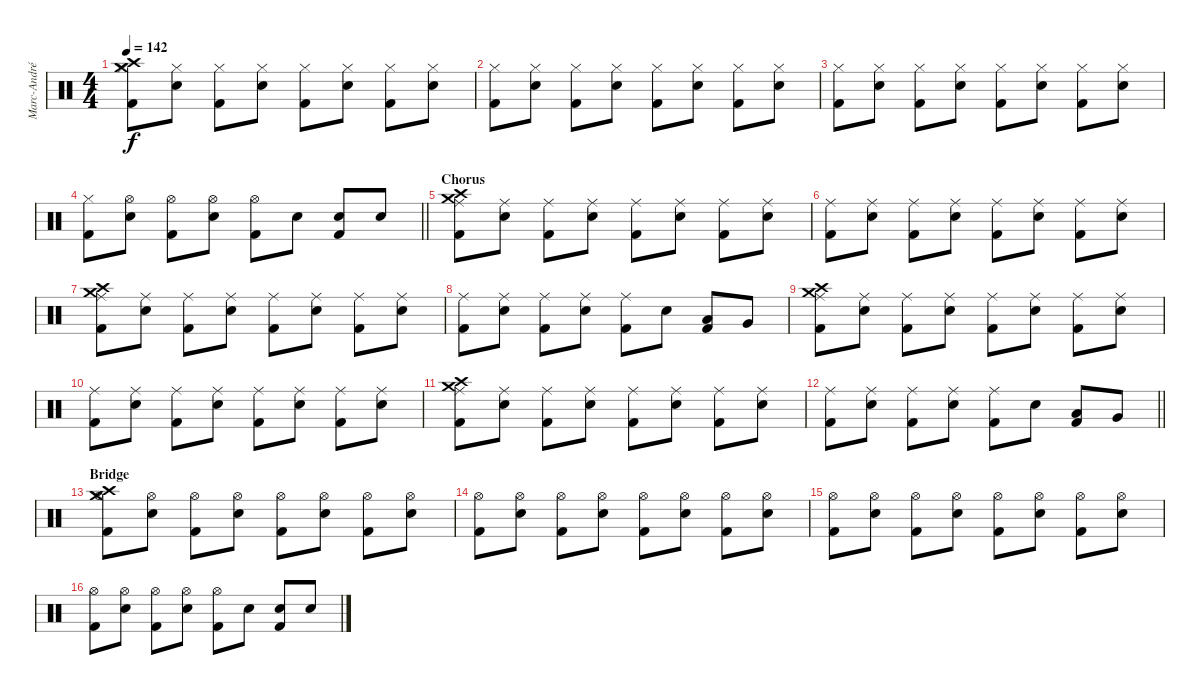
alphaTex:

\track ("Marc-André Barabé" "Marc-André") {instrument percussion}
\staff {score}
\articulation defaults
\ts (4 4)
\tempo 142
\clef neutral
\ks c
("Crash high (hit)" "Crash medium (hit)" "Hi-Hat (closed)" "Kick (hit) 2").8{dy f} ("Hi-Hat (closed)" "Electric Snare (hit)").8 ("Hi-Hat (closed)" "Kick (hit) 2"{tr (2 32)}).8 ("Hi-Hat (closed)" "Electric Snare (hit)").8 ("Hi-Hat (closed)" "Kick (hit) 2").8 ("Hi-Hat (closed)" "Electric Snare (hit)").8 ("Hi-Hat (closed)" "Kick (hit) 2"{tr (2 32)}).8 ("Hi-Hat (closed)" "Electric Snare (hit)").8 |
("Hi-Hat (closed)" "Kick (hit) 2").8 ("Hi-Hat (closed)" "Electric Snare (hit)").8 ("Hi-Hat (closed)" "Kick (hit) 2"{tr (2 32)}).8 ("Hi-Hat (closed)" "Electric Snare (hit)").8 ("Hi-Hat (closed)" "Kick (hit) 2").8 ("Hi-Hat (closed)" "Electric Snare (hit)").8 ("Hi-Hat (closed)" "Kick (hit) 2"{tr (2 32)}).8 ("Hi-Hat (closed)" "Electric Snare (hit)").8 |
("Hi-Hat (closed)" "Kick (hit) 2").8 ("Hi-Hat (closed)" "Electric Snare (hit)").8 ("Hi-Hat (closed)" "Kick (hit) 2"{tr (2 32)}).8 ("Hi-Hat (closed)" "Electric Snare (hit)").8 ("Hi-Hat (closed)" "Kick (hit) 2").8 ("Hi-Hat (closed)" "Electric Snare (hit)").8 ("Hi-Hat (closed)" "Kick (hit) 2"{tr (2 32)}).8 ("Hi-Hat (closed)" "Electric Snare (hit)").8 |
\barLineRight lightlight
("Hi-Hat (closed)" "Kick (hit) 2").8 ("Hi-Hat (open)" "Electric Snare (hit)").8 ("Hi-Hat (open)" "Kick (hit) 2"{tr (2 32)}).8 ("Hi-Hat (open)" "Electric Snare (hit)").8 ("Hi-Hat (open)" "Kick (hit) 2").8 "Electric Snare (hit)"{tr (4 32)}.8 ("Electric Snare (hit)"{tr (4 32)} "Kick (hit) 2"{tr (2 32)}).8 "Electric Snare (hit)"{tr (4 32)}.8 |
\section ("" "Chorus")
("Crash high (hit)" "Crash medium (hit)" "Ride (middle)" "Kick (hit) 2").8 ("Ride (middle)" "Electric Snare (hit)").8 ("Ride (middle)" "Kick (hit) 2"{tr (2 32)}).8 ("Ride (middle)" "Electric Snare (hit)").8 ("Ride (middle)" "Kick (hit) 2").8 ("Ride (middle)" "Electric Snare (hit)").8 ("Ride (middle)" "Kick (hit) 2"{tr (2 32)}).8 ("Ride (middle)" "Electric Snare (hit)").8 |
("Ride (middle)" "Kick (hit) 2").8 ("Ride (middle)" "Electric Snare (hit)").8 ("Ride (middle)" "Kick (hit) 2"{tr (2 32)}).8 ("Ride (middle)" "Electric Snare (hit)").8 ("Ride (middle)" "Kick (hit) 2").8 ("Ride (middle)" "Electric Snare (hit)").8 ("Ride (middle)" "Kick (hit) 2"{tr (2 32)}).8 ("Ride (middle)" "Electric Snare (hit)").8 |
("Crash high (hit)" "Crash medium (hit)" "Ride (middle)" "Kick (hit) 2").8 ("Ride (middle)" "Electric Snare (hit)").8 ("Ride (middle)" "Kick (hit) 2"{tr (2 32)}).8 ("Ride (middle)" "Electric Snare (hit)").8 ("Ride (middle)" "Kick (hit) 2").8 ("Ride (middle)" "Electric Snare (hit)").8 ("Ride (middle)" "Kick (hit) 2"{tr (2 32)}).8 ("Ride (middle)" "Electric Snare (hit)").8 |
("Ride (middle)" "Kick (hit) 2").8 ("Ride (middle)" "Electric Snare (hit)").8 ("Ride (middle)" "Kick (hit) 2"{tr (2 32)}).8 ("Ride (middle)" "Electric Snare (hit)").8 ("Ride (middle)" "Kick (hit) 2").8 "Electric Snare (hit)"{tr (4 32)}.8 ("Low Tom (hit)"{tr (4 32)} "Kick (hit) 2"{tr (2 32)}).8 "Very Low Tom (hit)"{tr (4 32)}.8 |
("Crash high (hit)" "Crash medium (hit)" "Ride (middle)" "Kick (hit) 2").8 ("Ride (middle)" "Electric Snare (hit)").8 ("Ride (middle)" "Kick (hit) 2"{tr (2 32)}).8 ("Ride (middle)" "Electric Snare (hit)").8 ("Ride (middle)" "Kick (hit) 2").8 ("Ride (middle)" "Electric Snare (hit)").8 ("Ride (middle)" "Kick (hit) 2"{tr (2 32)}).8 ("Ride (middle)" "Electric Snare (hit)").8 |
("Ride (middle)" "Kick (hit) 2").8 ("Ride (middle)" "Electric Snare (hit)").8 ("Ride (middle)" "Kick (hit) 2"{tr (2 32)}).8 ("Ride (middle)" "Electric Snare (hit)").8 ("Ride (middle)" "Kick (hit) 2").8 ("Ride (middle)" "Electric Snare (hit)").8 ("Ride (middle)" "Kick (hit) 2"{tr (2 32)}).8 ("Ride (middle)" "Electric Snare (hit)").8 |
("Crash high (hit)" "Crash medium (hit)" "Ride (middle)" "Kick (hit) 2").8 ("Ride (middle)" "Electric Snare (hit)").8 ("Ride (middle)" "Kick (hit) 2"{tr (2 32)}).8 ("Ride (middle)" "Electric Snare (hit)").8 ("Ride (middle)" "Kick (hit) 2").8 ("Ride (middle)" "Electric Snare (hit)").8 ("Ride (middle)" "Kick (hit) 2"{tr (2 32)}).8 ("Ride (middle)" "Electric Snare (hit)").8 |
\barLineRight lightlight
("Ride (middle)" "Kick (hit) 2").8 ("Ride (middle)" "Electric Snare (hit)").8 ("Ride (middle)" "Kick (hit) 2"{tr (2 32)}).8 ("Ride (middle)" "Electric Snare (hit)").8 ("Ride (middle)" "Kick (hit) 2").8 "Electric Snare (hit)"{tr (4 32)}.8 ("Low Tom (hit)"{tr (4 32)} "Kick (hit) 2"{tr (2 32)}).8 "Very Low Tom (hit)"{tr (4 32)}.8 |
\section ("" "Bridge")
("Crash high (hit)" "Crash medium (hit)" "Hi-Hat (open)" "Kick (hit) 2").8 ("Hi-Hat (open)" "Electric Snare (hit)").8 ("Hi-Hat (open)" "Kick (hit) 2"{tr (2 32)}).8 ("Hi-Hat (open)" "Electric Snare (hit)").8 ("Hi-Hat (open)" "Kick (hit) 2").8 ("Hi-Hat (open)" "Electric Snare (hit)").8 ("Hi-Hat (open)" "Kick (hit) 2"{tr (2 32)}).8 ("Hi-Hat (open)" "Electric Snare (hit)").8 |
("Hi-Hat (open)" "Kick (hit) 2").8 ("Hi-Hat (open)" "Electric Snare (hit)").8 ("Hi-Hat (open)" "Kick (hit) 2"{tr (2 32)}).8 ("Hi-Hat (open)" "Electric Snare (hit)").8 ("Hi-Hat (open)" "Kick (hit) 2").8 ("Hi-Hat (open)" "Electric Snare (hit)").8 ("Hi-Hat (open)" "Kick (hit) 2"{tr (2 32)}).8 ("Hi-Hat (open)" "Electric Snare (hit)").8 |
("Hi-Hat (open)" "Kick (hit) 2").8 ("Hi-Hat (open)" "Electric Snare (hit)").8 ("Hi-Hat (open)" "Kick (hit) 2"{tr (2 32)}).8 ("Hi-Hat (open)" "Electric Snare (hit)").8 ("Hi-Hat (open)" "Kick (hit) 2").8 ("Hi-Hat (open)" "Electric Snare (hit)").8 ("Hi-Hat (open)" "Kick (hit) 2"{tr (2 32)}).8 ("Hi-Hat (open)" "Electric Snare (hit)").8 |
("Hi-Hat (open)" "Kick (hit) 2").8 ("Hi-Hat (open)" "Electric Snare (hit)").8 ("Hi-Hat (open)" "Kick (hit) 2"{tr (2 32)}).8 ("Hi-Hat (open)" "Electric Snare (hit)").8 ("Hi-Hat (open)" "Kick (hit) 2").8 "Electric Snare (hit)"{tr (4 32)}.8 ("Electric Snare (hit)"{tr (4 32)} "Kick (hit) 2"{tr (2 32)}).8 "Electric Snare (hit)"{tr (4 32)}.8
